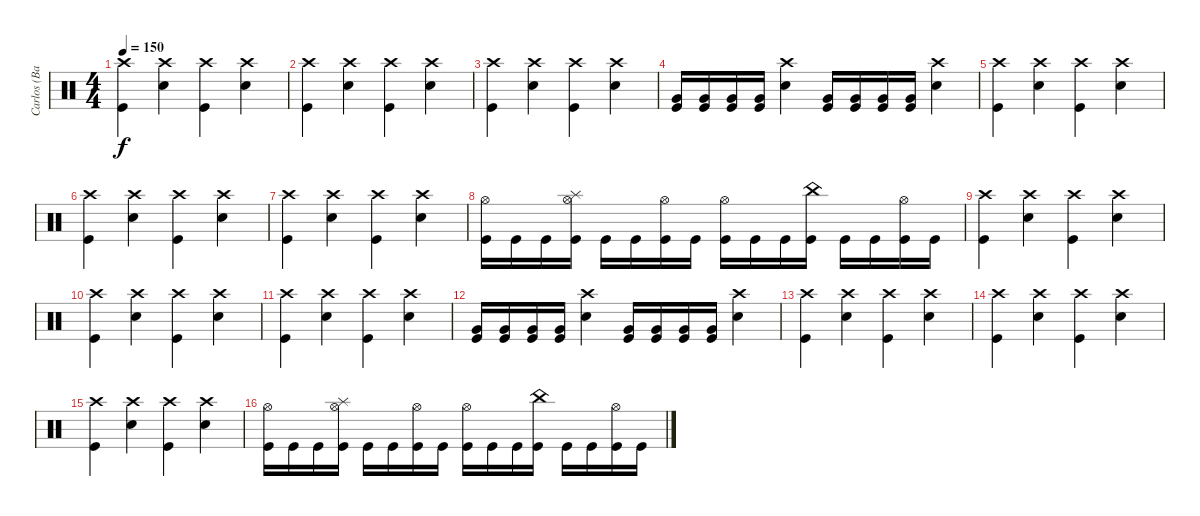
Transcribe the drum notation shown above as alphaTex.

\track ("Carlos (Batería)" "Carlos (Ba") {instrument percussion}
\staff {score}
\articulation defaults
\ts (4 4)
\tempo 150
\clef neutral
\ks c
("Crash high (hit)" "Kick (hit)").4{dy f} ("Crash high (hit)" "Snare (hit) 2").4 ("Crash high (hit)" "Kick (hit)").4 ("Crash high (hit)" "Snare (hit) 2").4 |
("Crash high (hit)" "Kick (hit)").4 ("Crash high (hit)" "Snare (hit) 2").4 ("Crash high (hit)" "Kick (hit)").4 ("Crash high (hit)" "Snare (hit) 2").4 |
("Crash high (hit)" "Kick (hit)").4 ("Crash high (hit)" "Snare (hit) 2").4 ("Crash high (hit)" "Kick (hit)").4 ("Crash high (hit)" "Snare (hit) 2").4 |
("Very Low Tom (hit)" "Kick (hit)").16 ("Very Low Tom (hit)" "Kick (hit)").16 ("Very Low Tom (hit)" "Kick (hit)").16 ("Very Low Tom (hit)" "Kick (hit)").16 ("Crash high (hit)" "Snare (hit) 2").4 ("Very Low Tom (hit)" "Kick (hit)").16 ("Very Low Tom (hit)" "Kick (hit)").16 ("Very Low Tom (hit)" "Kick (hit)").16 ("Very Low Tom (hit)" "Kick (hit)").16 ("Crash high (hit)" "Snare (hit) 2").4 |
("Crash high (hit)" "Kick (hit)").4 ("Crash high (hit)" "Snare (hit) 2").4 ("Crash high (hit)" "Kick (hit)").4 ("Crash high (hit)" "Snare (hit) 2").4 |
("Crash high (hit)" "Kick (hit)").4 ("Crash high (hit)" "Snare (hit) 2").4 ("Crash high (hit)" "Kick (hit)").4 ("Crash high (hit)" "Snare (hit) 2").4 |
("Crash high (hit)" "Kick (hit)").4 ("Crash high (hit)" "Snare (hit) 2").4 ("Crash high (hit)" "Kick (hit)").4 ("Crash high (hit)" "Snare (hit) 2").4 |
("Kick (hit)" "Hi-Hat (open)").16 "Kick (hit)".16 "Kick (hit)".16 ("Kick (hit)" "Hi-Hat (open)" "Splash (hit)").16 "Kick (hit)".16 "Kick (hit)".16 ("Kick (hit)" "Hi-Hat (open)").16 "Kick (hit)".16 ("Kick (hit)" "Hi-Hat (open)").16 "Kick (hit)".16 "Kick (hit)".16 ("Kick (hit)" "China (hit)").16 "Kick (hit)".16 "Kick (hit)".16 ("Kick (hit)" "Hi-Hat (open)").16 "Kick (hit)".16 |
("Crash high (hit)" "Kick (hit)").4 ("Crash high (hit)" "Snare (hit) 2").4 ("Crash high (hit)" "Kick (hit)").4 ("Crash high (hit)" "Snare (hit) 2").4 |
("Crash high (hit)" "Kick (hit)").4 ("Crash high (hit)" "Snare (hit) 2").4 ("Crash high (hit)" "Kick (hit)").4 ("Crash high (hit)" "Snare (hit) 2").4 |
("Crash high (hit)" "Kick (hit)").4 ("Crash high (hit)" "Snare (hit) 2").4 ("Crash high (hit)" "Kick (hit)").4 ("Crash high (hit)" "Snare (hit) 2").4 |
("Very Low Tom (hit)" "Kick (hit)").16 ("Very Low Tom (hit)" "Kick (hit)").16 ("Very Low Tom (hit)" "Kick (hit)").16 ("Very Low Tom (hit)" "Kick (hit)").16 ("Crash high (hit)" "Snare (hit) 2").4 ("Very Low Tom (hit)" "Kick (hit)").16 ("Very Low Tom (hit)" "Kick (hit)").16 ("Very Low Tom (hit)" "Kick (hit)").16 ("Very Low Tom (hit)" "Kick (hit)").16 ("Crash high (hit)" "Snare (hit) 2").4 |
("Crash high (hit)" "Kick (hit)").4 ("Crash high (hit)" "Snare (hit) 2").4 ("Crash high (hit)" "Kick (hit)").4 ("Crash high (hit)" "Snare (hit) 2").4 |
("Crash high (hit)" "Kick (hit)").4 ("Crash high (hit)" "Snare (hit) 2").4 ("Crash high (hit)" "Kick (hit)").4 ("Crash high (hit)" "Snare (hit) 2").4 |
("Crash high (hit)" "Kick (hit)").4 ("Crash high (hit)" "Snare (hit) 2").4 ("Crash high (hit)" "Kick (hit)").4 ("Crash high (hit)" "Snare (hit) 2").4 |
("Kick (hit)" "Hi-Hat (open)").16 "Kick (hit)".16 "Kick (hit)".16 ("Kick (hit)" "Hi-Hat (open)" "Splash (hit)").16 "Kick (hit)".16 "Kick (hit)".16 ("Kick (hit)" "Hi-Hat (open)").16 "Kick (hit)".16 ("Kick (hit)" "Hi-Hat (open)").16 "Kick (hit)".16 "Kick (hit)".16 ("Kick (hit)" "China (hit)").16 "Kick (hit)".16 "Kick (hit)".16 ("Kick (hit)" "Hi-Hat (open)").16 "Kick (hit)".16
